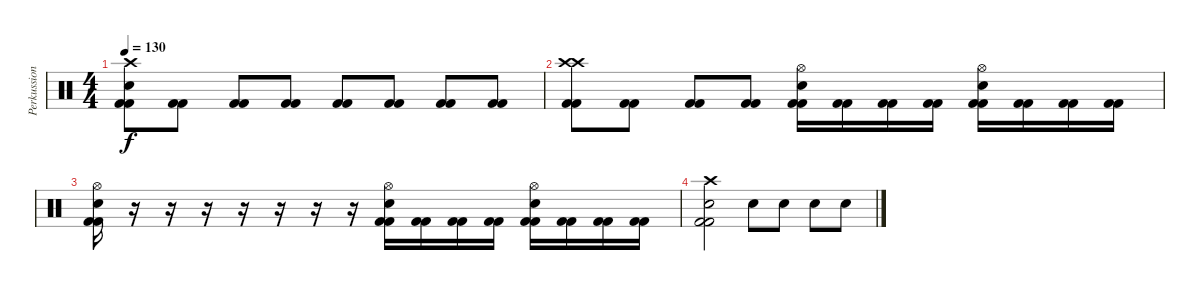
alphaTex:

\track ("Perkussion" "Perkussion") {instrument percussion}
\staff {score}
\articulation defaults
\ts (4 4)
\tempo 130
\clef neutral
\ks c
("Crash high (hit)" "Electric Snare (hit)" "Kick (hit) 2" "Kick (hit) 2").8{dy f} ("Kick (hit) 2" "Kick (hit) 2").8 ("Kick (hit) 2" "Kick (hit) 2").8 ("Kick (hit) 2" "Kick (hit) 2").8 ("Kick (hit) 2" "Kick (hit) 2").8 ("Kick (hit) 2" "Kick (hit) 2").8 ("Kick (hit) 2" "Kick (hit) 2").8 ("Kick (hit) 2" "Kick (hit) 2").8 |
("Crash high (hit)" "Crash high (hit)" "Kick (hit) 2" "Kick (hit) 2").8 ("Kick (hit) 2" "Kick (hit) 2").8 ("Kick (hit) 2" "Kick (hit) 2").8 ("Kick (hit) 2" "Kick (hit) 2").8 ("Hi-Hat (open)" "Electric Snare (hit)" "Kick (hit) 2" "Kick (hit) 2").16 ("Kick (hit) 2" "Kick (hit) 2").16 ("Kick (hit) 2" "Kick (hit) 2").16 ("Kick (hit) 2" "Kick (hit) 2").16 ("Hi-Hat (open)" "Electric Snare (hit)" "Kick (hit) 2" "Kick (hit) 2").16 ("Kick (hit) 2" "Kick (hit) 2").16 ("Kick (hit) 2" "Kick (hit) 2").16 ("Kick (hit) 2" "Kick (hit) 2").16 |
("Hi-Hat (open)" "Electric Snare (hit)" "Kick (hit) 2" "Kick (hit) 2").16 r.16 r.16 r.16 r.16 r.16 r.16 r.16 ("Hi-Hat (open)" "Electric Snare (hit)" "Kick (hit) 2" "Kick (hit) 2").16 ("Kick (hit) 2" "Kick (hit) 2").16 ("Kick (hit) 2" "Kick (hit) 2").16 ("Kick (hit) 2" "Kick (hit) 2").16 ("Hi-Hat (open)" "Electric Snare (hit)" "Kick (hit) 2" "Kick (hit) 2").16 ("Kick (hit) 2" "Kick (hit) 2").16 ("Kick (hit) 2" "Kick (hit) 2").16 ("Kick (hit) 2" "Kick (hit) 2").16 |
("Crash high (hit)" "Electric Snare (hit)" "Kick (hit) 2" "Kick (hit) 2").2 "Electric Snare (hit)".8 "Electric Snare (hit)".8 "Electric Snare (hit)".8 "Electric Snare (hit)".8
